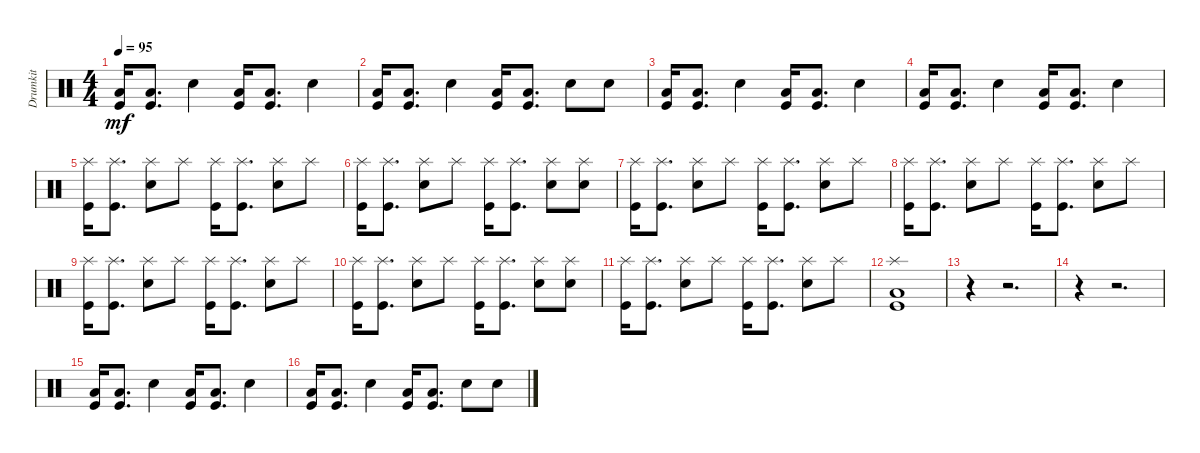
\track ("Drumkit" "Drumkit") {instrument percussion}
\staff {score}
\articulation defaults
\ts (4 4)
\tempo 95
\clef neutral
\ks c
("Kick (hit)" "Low Floor Tom (hit)").16{dy mf} ("Kick (hit)" "Low Floor Tom (hit)").8{d} "Snare (hit) 2".4 ("Kick (hit)" "Low Floor Tom (hit)").16 ("Kick (hit)" "Low Floor Tom (hit)").8{d} "Snare (hit) 2".4 |
("Kick (hit)" "Low Floor Tom (hit)").16 ("Kick (hit)" "Low Floor Tom (hit)").8{d} "Snare (hit) 2".4 ("Kick (hit)" "Low Floor Tom (hit)").16 ("Kick (hit)" "Low Floor Tom (hit)").8{d} "Snare (hit) 2".8 "Snare (hit) 2".8 |
("Kick (hit)" "Low Floor Tom (hit)").16 ("Kick (hit)" "Low Floor Tom (hit)").8{d} "Snare (hit) 2".4 ("Kick (hit)" "Low Floor Tom (hit)").16 ("Kick (hit)" "Low Floor Tom (hit)").8{d} "Snare (hit) 2".4 |
("Kick (hit)" "Low Floor Tom (hit)").16 ("Kick (hit)" "Low Floor Tom (hit)").8{d} "Snare (hit) 2".4 ("Kick (hit)" "Low Floor Tom (hit)").16 ("Kick (hit)" "Low Floor Tom (hit)").8{d} "Snare (hit) 2".4 |
("Kick (hit)" "Splash (hit)").16 ("Kick (hit)" "Splash (hit)").8{d} ("Snare (hit) 2" "Splash (hit)").8 "Splash (hit)".8 ("Kick (hit)" "Splash (hit)").16 ("Kick (hit)" "Splash (hit)").8{d} ("Snare (hit) 2" "Splash (hit)").8 "Splash (hit)".8 |
("Kick (hit)" "Splash (hit)").16 ("Kick (hit)" "Splash (hit)").8{d} ("Snare (hit) 2" "Splash (hit)").8 "Splash (hit)".8 ("Kick (hit)" "Splash (hit)").16 ("Kick (hit)" "Splash (hit)").8{d} ("Snare (hit) 2" "Splash (hit)").8 ("Splash (hit)" "Snare (hit) 2").8 |
("Kick (hit)" "Splash (hit)").16 ("Kick (hit)" "Splash (hit)").8{d} ("Snare (hit) 2" "Splash (hit)").8 "Splash (hit)".8 ("Kick (hit)" "Splash (hit)").16 ("Kick (hit)" "Splash (hit)").8{d} ("Snare (hit) 2" "Splash (hit)").8 "Splash (hit)".8 |
("Kick (hit)" "Splash (hit)").16 ("Kick (hit)" "Splash (hit)").8{d} ("Snare (hit) 2" "Splash (hit)").8 "Splash (hit)".8 ("Kick (hit)" "Splash (hit)").16 ("Kick (hit)" "Splash (hit)").8{d} ("Snare (hit) 2" "Splash (hit)").8 "Splash (hit)".8 |
("Kick (hit)" "Splash (hit)").16 ("Kick (hit)" "Splash (hit)").8{d} ("Snare (hit) 2" "Splash (hit)").8 "Splash (hit)".8 ("Kick (hit)" "Splash (hit)").16 ("Kick (hit)" "Splash (hit)").8{d} ("Snare (hit) 2" "Splash (hit)").8 "Splash (hit)".8 |
("Kick (hit)" "Splash (hit)").16 ("Kick (hit)" "Splash (hit)").8{d} ("Snare (hit) 2" "Splash (hit)").8 "Splash (hit)".8 ("Kick (hit)" "Splash (hit)").16 ("Kick (hit)" "Splash (hit)").8{d} ("Snare (hit) 2" "Splash (hit)").8 ("Splash (hit)" "Snare (hit) 2").8 |
("Kick (hit)" "Splash (hit)").16 ("Kick (hit)" "Splash (hit)").8{d} ("Snare (hit) 2" "Splash (hit)").8 "Splash (hit)".8 ("Kick (hit)" "Splash (hit)").16 ("Kick (hit)" "Splash (hit)").8{d} ("Snare (hit) 2" "Splash (hit)").8 "Splash (hit)".8 |
("Kick (hit)" "Low Floor Tom (hit)" "Splash (hit)").1 |
r.4 r.2{d} |
r.4 r.2{d} |
("Kick (hit)" "Low Floor Tom (hit)").16 ("Kick (hit)" "Low Floor Tom (hit)").8{d} "Snare (hit) 2".4 ("Kick (hit)" "Low Floor Tom (hit)").16 ("Kick (hit)" "Low Floor Tom (hit)").8{d} "Snare (hit) 2".4 |
("Kick (hit)" "Low Floor Tom (hit)").16 ("Kick (hit)" "Low Floor Tom (hit)").8{d} "Snare (hit) 2".4 ("Kick (hit)" "Low Floor Tom (hit)").16 ("Kick (hit)" "Low Floor Tom (hit)").8{d} "Snare (hit) 2".8 "Snare (hit) 2".8
